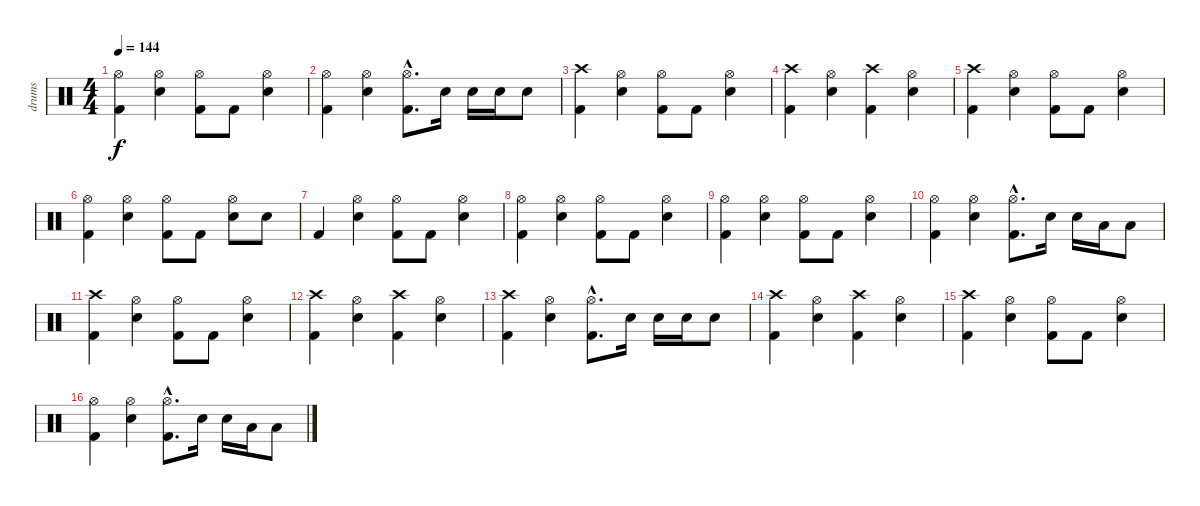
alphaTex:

\track ("drums" "drums") {instrument percussion}
\staff {score}
\articulation defaults
\ts (4 4)
\tempo 144
\clef neutral
\ks c
("Hi-Hat (open)" "Kick (hit) 2").4{dy f} ("Hi-Hat (open)" "Electric Snare (hit)").4 ("Hi-Hat (open)" "Kick (hit) 2").8 "Kick (hit) 2".8 ("Hi-Hat (open)" "Electric Snare (hit)").4 |
("Hi-Hat (open)" "Kick (hit) 2").4 ("Hi-Hat (open)" "Electric Snare (hit)").4 ("Hi-Hat (open)"{hac} "Kick (hit) 2"{hac}).8{d} "Electric Snare (hit)".16 "Electric Snare (hit)".16 "Electric Snare (hit)".16 "Electric Snare (hit)".8 |
("Crash high (hit)" "Kick (hit) 2").4 ("Hi-Hat (open)" "Electric Snare (hit)").4 ("Hi-Hat (open)" "Kick (hit) 2").8 "Kick (hit) 2".8 ("Hi-Hat (open)" "Electric Snare (hit)").4 |
("Crash high (hit)" "Kick (hit) 2").4 ("Hi-Hat (open)" "Electric Snare (hit)").4 ("Crash high (hit)" "Kick (hit) 2").4 ("Hi-Hat (open)" "Electric Snare (hit)").4 |
("Crash high (hit)" "Kick (hit) 2").4 ("Hi-Hat (open)" "Electric Snare (hit)").4 ("Hi-Hat (open)" "Kick (hit) 2").8 "Kick (hit) 2".8 ("Hi-Hat (open)" "Electric Snare (hit)").4 |
("Hi-Hat (open)" "Kick (hit) 2").4 ("Hi-Hat (open)" "Electric Snare (hit)").4 ("Hi-Hat (open)" "Kick (hit) 2").8 "Kick (hit) 2".8 ("Hi-Hat (open)" "Electric Snare (hit)").8 "Electric Snare (hit)".8 |
"Kick (hit) 2".4 ("Hi-Hat (open)" "Electric Snare (hit)").4 ("Hi-Hat (open)" "Kick (hit) 2").8 "Kick (hit) 2".8 ("Hi-Hat (open)" "Electric Snare (hit)").4 |
("Hi-Hat (open)" "Kick (hit) 2").4 ("Hi-Hat (open)" "Electric Snare (hit)").4 ("Hi-Hat (open)" "Kick (hit) 2").8 "Kick (hit) 2".8 ("Hi-Hat (open)" "Electric Snare (hit)").4 |
("Hi-Hat (open)" "Kick (hit) 2").4 ("Hi-Hat (open)" "Electric Snare (hit)").4 ("Hi-Hat (open)" "Kick (hit) 2").8 "Kick (hit) 2".8 ("Hi-Hat (open)" "Electric Snare (hit)").4 |
("Hi-Hat (open)" "Kick (hit) 2").4 ("Hi-Hat (open)" "Electric Snare (hit)").4 ("Hi-Hat (open)"{hac} "Kick (hit) 2"{hac}).8{d} "Electric Snare (hit)".16 "Electric Snare (hit)".16 "Low Tom (hit)".16 "Low Tom (hit)".8 |
("Crash high (hit)" "Kick (hit) 2").4 ("Hi-Hat (open)" "Electric Snare (hit)").4 ("Hi-Hat (open)" "Kick (hit) 2").8 "Kick (hit) 2".8 ("Hi-Hat (open)" "Electric Snare (hit)").4 |
("Crash high (hit)" "Kick (hit) 2").4 ("Hi-Hat (open)" "Electric Snare (hit)").4 ("Crash high (hit)" "Kick (hit) 2").4 ("Hi-Hat (open)" "Electric Snare (hit)").4 |
("Crash high (hit)" "Kick (hit) 2").4 ("Hi-Hat (open)" "Electric Snare (hit)").4 ("Hi-Hat (open)"{hac} "Kick (hit) 2"{hac}).8{d} "Electric Snare (hit)".16 "Electric Snare (hit)".16 "Electric Snare (hit)".16 "Electric Snare (hit)".8 |
("Crash high (hit)" "Kick (hit) 2").4 ("Hi-Hat (open)" "Electric Snare (hit)").4 ("Crash high (hit)" "Kick (hit) 2").4 ("Hi-Hat (open)" "Electric Snare (hit)").4 |
("Crash high (hit)" "Kick (hit) 2").4 ("Hi-Hat (open)" "Electric Snare (hit)").4 ("Hi-Hat (open)" "Kick (hit) 2").8 "Kick (hit) 2".8 ("Hi-Hat (open)" "Electric Snare (hit)").4 |
("Hi-Hat (open)" "Kick (hit) 2").4 ("Hi-Hat (open)" "Electric Snare (hit)").4 ("Hi-Hat (open)"{hac} "Kick (hit) 2"{hac}).8{d} "Electric Snare (hit)".16 "Electric Snare (hit)".16 "Low Tom (hit)".16 "Low Tom (hit)".8
